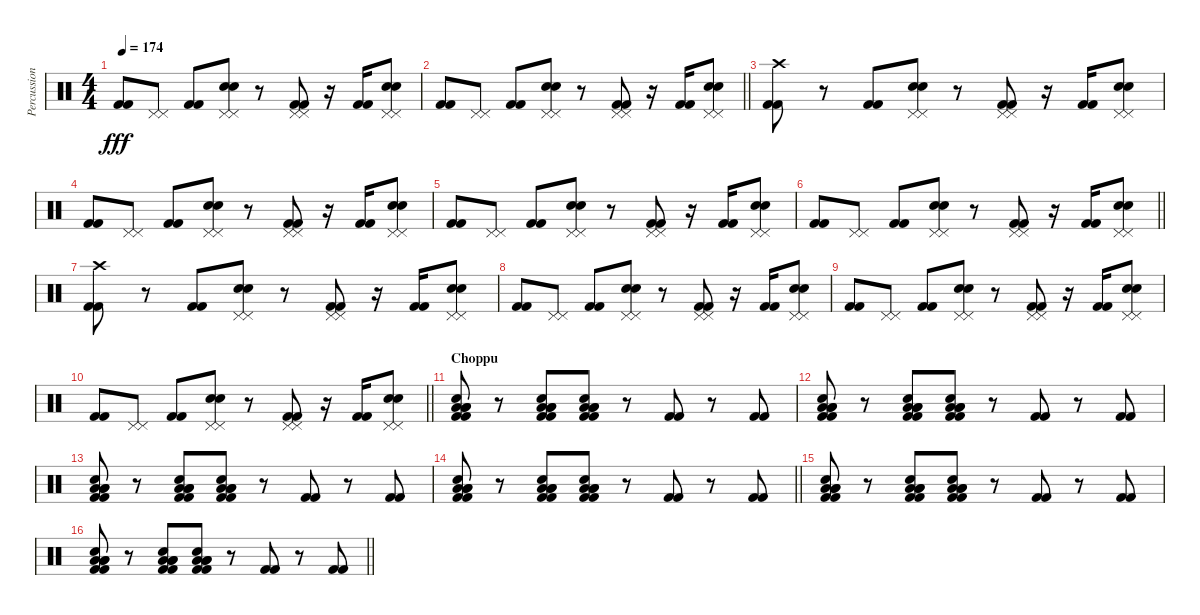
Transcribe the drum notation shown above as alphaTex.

\track ("Percussion" "Percussion") {instrument percussion}
\staff {score}
\articulation defaults
\ts (4 4)
\tempo 174
\clef neutral
\ks c
("Kick (hit) 2" "Kick (hit) 2").8{dy fff} ("Pedal Hi-Hat (hit)" "Pedal Hi-Hat (hit)").8 ("Kick (hit) 2" "Kick (hit) 2").8 ("Pedal Hi-Hat (hit)" "Pedal Hi-Hat (hit)" "Electric Snare (hit)" "Electric Snare (hit)").8 r.8 ("Pedal Hi-Hat (hit)" "Pedal Hi-Hat (hit)" "Kick (hit) 2" "Kick (hit) 2").8 r.16 ("Kick (hit) 2" "Kick (hit) 2").16 ("Pedal Hi-Hat (hit)" "Pedal Hi-Hat (hit)" "Electric Snare (hit)" "Electric Snare (hit)").8 |
\barLineRight lightlight
("Kick (hit) 2" "Kick (hit) 2").8 ("Pedal Hi-Hat (hit)" "Pedal Hi-Hat (hit)").8 ("Kick (hit) 2" "Kick (hit) 2").8 ("Pedal Hi-Hat (hit)" "Pedal Hi-Hat (hit)" "Electric Snare (hit)" "Electric Snare (hit)").8 r.8 ("Pedal Hi-Hat (hit)" "Pedal Hi-Hat (hit)" "Kick (hit) 2" "Kick (hit) 2").8 r.16 ("Kick (hit) 2" "Kick (hit) 2").16 ("Pedal Hi-Hat (hit)" "Pedal Hi-Hat (hit)" "Electric Snare (hit)" "Electric Snare (hit)").8 |
("Crash high (hit)" "Kick (hit) 2" "Kick (hit) 2").8 r.8 ("Kick (hit) 2" "Kick (hit) 2").8 ("Pedal Hi-Hat (hit)" "Pedal Hi-Hat (hit)" "Electric Snare (hit)" "Electric Snare (hit)").8 r.8 ("Pedal Hi-Hat (hit)" "Pedal Hi-Hat (hit)" "Kick (hit) 2" "Kick (hit) 2").8 r.16 ("Kick (hit) 2" "Kick (hit) 2").16 ("Pedal Hi-Hat (hit)" "Pedal Hi-Hat (hit)" "Electric Snare (hit)" "Electric Snare (hit)").8 |
("Kick (hit) 2" "Kick (hit) 2").8 ("Pedal Hi-Hat (hit)" "Pedal Hi-Hat (hit)").8 ("Kick (hit) 2" "Kick (hit) 2").8 ("Pedal Hi-Hat (hit)" "Pedal Hi-Hat (hit)" "Electric Snare (hit)" "Electric Snare (hit)").8 r.8 ("Pedal Hi-Hat (hit)" "Pedal Hi-Hat (hit)" "Kick (hit) 2" "Kick (hit) 2").8 r.16 ("Kick (hit) 2" "Kick (hit) 2").16 ("Pedal Hi-Hat (hit)" "Pedal Hi-Hat (hit)" "Electric Snare (hit)" "Electric Snare (hit)").8 |
("Kick (hit) 2" "Kick (hit) 2").8 ("Pedal Hi-Hat (hit)" "Pedal Hi-Hat (hit)").8 ("Kick (hit) 2" "Kick (hit) 2").8 ("Pedal Hi-Hat (hit)" "Pedal Hi-Hat (hit)" "Electric Snare (hit)" "Electric Snare (hit)").8 r.8 ("Pedal Hi-Hat (hit)" "Pedal Hi-Hat (hit)" "Kick (hit) 2" "Kick (hit) 2").8 r.16 ("Kick (hit) 2" "Kick (hit) 2").16 ("Pedal Hi-Hat (hit)" "Pedal Hi-Hat (hit)" "Electric Snare (hit)" "Electric Snare (hit)").8 |
\barLineRight lightlight
("Kick (hit) 2" "Kick (hit) 2").8 ("Pedal Hi-Hat (hit)" "Pedal Hi-Hat (hit)").8 ("Kick (hit) 2" "Kick (hit) 2").8 ("Pedal Hi-Hat (hit)" "Pedal Hi-Hat (hit)" "Electric Snare (hit)" "Electric Snare (hit)").8 r.8 ("Pedal Hi-Hat (hit)" "Pedal Hi-Hat (hit)" "Kick (hit) 2" "Kick (hit) 2").8 r.16 ("Kick (hit) 2" "Kick (hit) 2").16 ("Pedal Hi-Hat (hit)" "Pedal Hi-Hat (hit)" "Electric Snare (hit)" "Electric Snare (hit)").8 |
\section ("" "")
("Crash high (hit)" "Kick (hit) 2" "Kick (hit) 2").8 r.8 ("Kick (hit) 2" "Kick (hit) 2").8 ("Pedal Hi-Hat (hit)" "Pedal Hi-Hat (hit)" "Electric Snare (hit)" "Electric Snare (hit)").8 r.8 ("Pedal Hi-Hat (hit)" "Pedal Hi-Hat (hit)" "Kick (hit) 2" "Kick (hit) 2").8 r.16 ("Kick (hit) 2" "Kick (hit) 2").16 ("Pedal Hi-Hat (hit)" "Pedal Hi-Hat (hit)" "Electric Snare (hit)" "Electric Snare (hit)").8 |
("Kick (hit) 2" "Kick (hit) 2").8 ("Pedal Hi-Hat (hit)" "Pedal Hi-Hat (hit)").8 ("Kick (hit) 2" "Kick (hit) 2").8 ("Pedal Hi-Hat (hit)" "Pedal Hi-Hat (hit)" "Electric Snare (hit)" "Electric Snare (hit)").8 r.8 ("Pedal Hi-Hat (hit)" "Pedal Hi-Hat (hit)" "Kick (hit) 2" "Kick (hit) 2").8 r.16 ("Kick (hit) 2" "Kick (hit) 2").16 ("Pedal Hi-Hat (hit)" "Pedal Hi-Hat (hit)" "Electric Snare (hit)" "Electric Snare (hit)").8 |
("Kick (hit) 2" "Kick (hit) 2").8 ("Pedal Hi-Hat (hit)" "Pedal Hi-Hat (hit)").8 ("Kick (hit) 2" "Kick (hit) 2").8 ("Pedal Hi-Hat (hit)" "Pedal Hi-Hat (hit)" "Electric Snare (hit)" "Electric Snare (hit)").8 r.8 ("Pedal Hi-Hat (hit)" "Pedal Hi-Hat (hit)" "Kick (hit) 2" "Kick (hit) 2").8 r.16 ("Kick (hit) 2" "Kick (hit) 2").16 ("Pedal Hi-Hat (hit)" "Pedal Hi-Hat (hit)" "Electric Snare (hit)" "Electric Snare (hit)").8 |
\barLineRight lightlight
("Kick (hit) 2" "Kick (hit) 2").8 ("Pedal Hi-Hat (hit)" "Pedal Hi-Hat (hit)").8 ("Kick (hit) 2" "Kick (hit) 2").8 ("Pedal Hi-Hat (hit)" "Pedal Hi-Hat (hit)" "Electric Snare (hit)" "Electric Snare (hit)").8 r.8 ("Pedal Hi-Hat (hit)" "Pedal Hi-Hat (hit)" "Kick (hit) 2" "Kick (hit) 2").8 r.16 ("Kick (hit) 2" "Kick (hit) 2").16 ("Pedal Hi-Hat (hit)" "Pedal Hi-Hat (hit)" "Electric Snare (hit)" "Electric Snare (hit)").8 |
\section ("" "Choppu")
("Low Floor Tom (hit)" "Low Floor Tom (hit)" "Low Floor Tom (hit)" "Electric Snare (hit)" "Kick (hit) 2" "Kick (hit) 2").8 r.8 ("Low Floor Tom (hit)" "Low Floor Tom (hit)" "Low Floor Tom (hit)" "Electric Snare (hit)" "Kick (hit) 2" "Kick (hit) 2").8 ("Low Floor Tom (hit)" "Low Floor Tom (hit)" "Low Floor Tom (hit)" "Electric Snare (hit)" "Kick (hit) 2" "Kick (hit) 2").8 r.8 ("Kick (hit) 2" "Kick (hit) 2").8 r.8 ("Kick (hit) 2" "Kick (hit) 2").8 |
("Low Floor Tom (hit)" "Low Floor Tom (hit)" "Low Floor Tom (hit)" "Electric Snare (hit)" "Kick (hit) 2" "Kick (hit) 2").8 r.8 ("Low Floor Tom (hit)" "Low Floor Tom (hit)" "Low Floor Tom (hit)" "Electric Snare (hit)" "Kick (hit) 2" "Kick (hit) 2").8 ("Low Floor Tom (hit)" "Low Floor Tom (hit)" "Low Floor Tom (hit)" "Electric Snare (hit)" "Kick (hit) 2" "Kick (hit) 2").8 r.8 ("Kick (hit) 2" "Kick (hit) 2").8 r.8 ("Kick (hit) 2" "Kick (hit) 2").8 |
("Low Floor Tom (hit)" "Low Floor Tom (hit)" "Low Floor Tom (hit)" "Electric Snare (hit)" "Kick (hit) 2" "Kick (hit) 2").8 r.8 ("Low Floor Tom (hit)" "Low Floor Tom (hit)" "Low Floor Tom (hit)" "Electric Snare (hit)" "Kick (hit) 2" "Kick (hit) 2").8 ("Low Floor Tom (hit)" "Low Floor Tom (hit)" "Low Floor Tom (hit)" "Electric Snare (hit)" "Kick (hit) 2" "Kick (hit) 2").8 r.8 ("Kick (hit) 2" "Kick (hit) 2").8 r.8 ("Kick (hit) 2" "Kick (hit) 2").8 |
\barLineRight lightlight
("Low Floor Tom (hit)" "Low Floor Tom (hit)" "Low Floor Tom (hit)" "Electric Snare (hit)" "Kick (hit) 2" "Kick (hit) 2").8 r.8 ("Low Floor Tom (hit)" "Low Floor Tom (hit)" "Low Floor Tom (hit)" "Electric Snare (hit)" "Kick (hit) 2" "Kick (hit) 2").8 ("Low Floor Tom (hit)" "Low Floor Tom (hit)" "Low Floor Tom (hit)" "Electric Snare (hit)" "Kick (hit) 2" "Kick (hit) 2").8 r.8 ("Kick (hit) 2" "Kick (hit) 2").8 r.8 ("Kick (hit) 2" "Kick (hit) 2").8 |
("Low Floor Tom (hit)" "Low Floor Tom (hit)" "Low Floor Tom (hit)" "Electric Snare (hit)" "Kick (hit) 2" "Kick (hit) 2").8 r.8 ("Low Floor Tom (hit)" "Low Floor Tom (hit)" "Low Floor Tom (hit)" "Electric Snare (hit)" "Kick (hit) 2" "Kick (hit) 2").8 ("Low Floor Tom (hit)" "Low Floor Tom (hit)" "Low Floor Tom (hit)" "Electric Snare (hit)" "Kick (hit) 2" "Kick (hit) 2").8 r.8 ("Kick (hit) 2" "Kick (hit) 2").8 r.8 ("Kick (hit) 2" "Kick (hit) 2").8 |
\barLineRight lightlight
("Low Floor Tom (hit)" "Low Floor Tom (hit)" "Low Floor Tom (hit)" "Electric Snare (hit)" "Kick (hit) 2" "Kick (hit) 2").8 r.8 ("Low Floor Tom (hit)" "Low Floor Tom (hit)" "Low Floor Tom (hit)" "Electric Snare (hit)" "Kick (hit) 2" "Kick (hit) 2").8 ("Low Floor Tom (hit)" "Low Floor Tom (hit)" "Low Floor Tom (hit)" "Electric Snare (hit)" "Kick (hit) 2" "Kick (hit) 2").8 r.8 ("Kick (hit) 2" "Kick (hit) 2").8 r.8 ("Kick (hit) 2" "Kick (hit) 2").8
